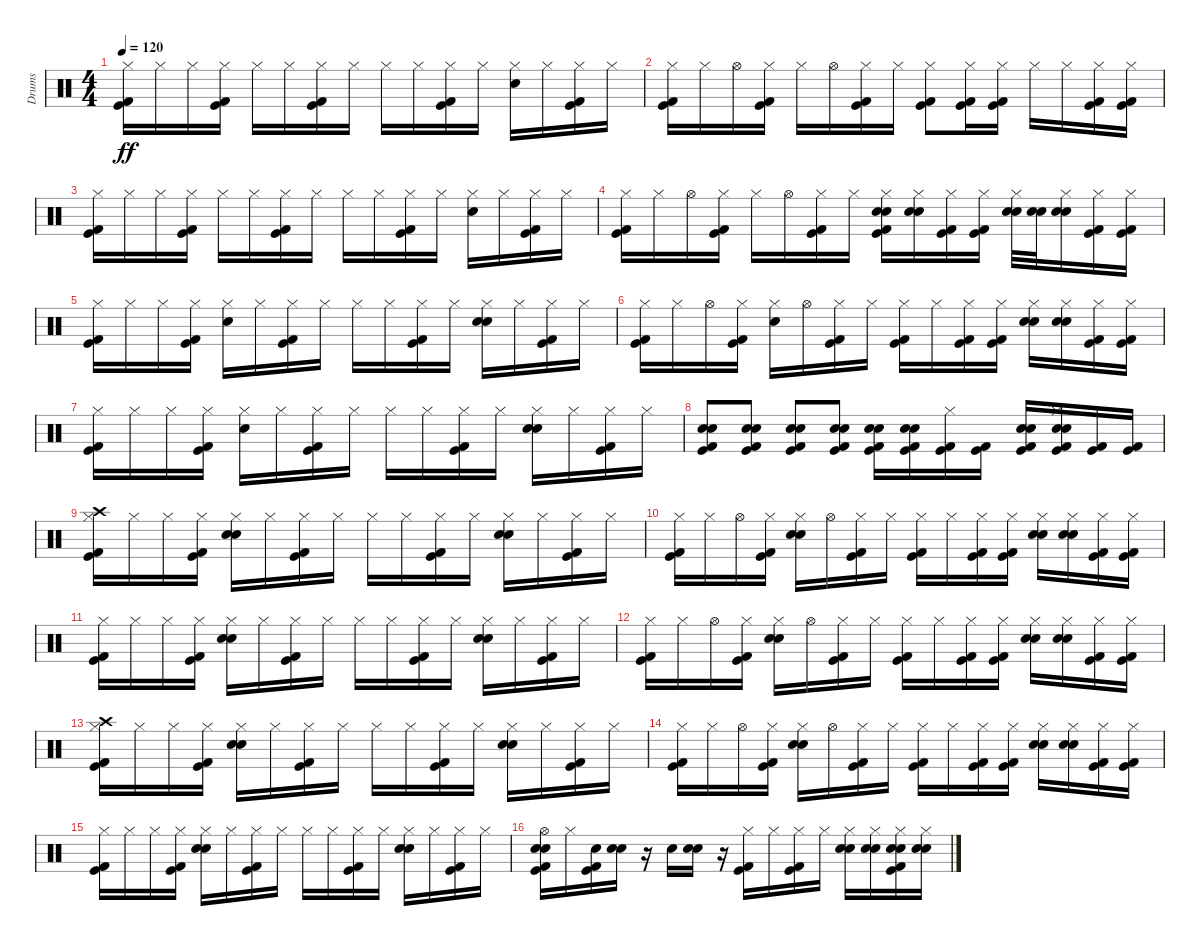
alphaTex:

\track ("Drums" "Drums") {instrument percussion}
\staff {score}
\articulation defaults
\ts (4 4)
\tempo 120
\clef neutral
\ks c
("Kick (hit)" "Kick (hit) 2" "Hi-Hat (closed)").16{dy ff} "Hi-Hat (closed)".16 "Hi-Hat (closed)".16 ("Kick (hit)" "Kick (hit) 2" "Hi-Hat (closed)").16 "Hi-Hat (closed)".16 "Hi-Hat (closed)".16 ("Kick (hit)" "Kick (hit) 2" "Hi-Hat (closed)").16 "Hi-Hat (closed)".16 "Hi-Hat (closed)".16 "Hi-Hat (closed)".16 ("Kick (hit)" "Kick (hit) 2" "Hi-Hat (closed)").16 "Hi-Hat (closed)".16 ("Hand Clap (hit)" "Hi-Hat (closed)").16 "Hi-Hat (closed)".16 ("Kick (hit)" "Kick (hit) 2" "Hi-Hat (closed)").16 "Hi-Hat (closed)".16 |
("Kick (hit)" "Kick (hit) 2" "Hi-Hat (closed)").16 "Hi-Hat (closed)".16 "Hi-Hat (open)".16 ("Kick (hit)" "Kick (hit) 2" "Hi-Hat (closed)").16 "Hi-Hat (closed)".16 "Hi-Hat (open)".16 ("Kick (hit)" "Kick (hit) 2" "Hi-Hat (closed)").16 "Hi-Hat (closed)".16 ("Kick (hit)" "Kick (hit) 2" "Hi-Hat (closed)").8 ("Kick (hit)" "Kick (hit) 2" "Hi-Hat (closed)").16 ("Kick (hit)" "Kick (hit) 2" "Hi-Hat (closed)").16 "Hi-Hat (closed)".16 "Hi-Hat (closed)".16 ("Kick (hit)" "Kick (hit) 2" "Hi-Hat (closed)").16 ("Kick (hit)" "Kick (hit) 2" "Hi-Hat (closed)").16 |
("Kick (hit)" "Kick (hit) 2" "Hi-Hat (closed)").16 "Hi-Hat (closed)".16 "Hi-Hat (closed)".16 ("Kick (hit)" "Kick (hit) 2" "Hi-Hat (closed)").16 "Hi-Hat (closed)".16 "Hi-Hat (closed)".16 ("Kick (hit)" "Kick (hit) 2" "Hi-Hat (closed)").16 "Hi-Hat (closed)".16 "Hi-Hat (closed)".16 "Hi-Hat (closed)".16 ("Kick (hit)" "Kick (hit) 2" "Hi-Hat (closed)").16 "Hi-Hat (closed)".16 ("Hand Clap (hit)" "Hi-Hat (closed)").16 "Hi-Hat (closed)".16 ("Kick (hit)" "Kick (hit) 2" "Hi-Hat (closed)").16 "Hi-Hat (closed)".16 |
("Kick (hit)" "Kick (hit) 2" "Hi-Hat (closed)").16 "Hi-Hat (closed)".16 "Hi-Hat (open)".16 ("Kick (hit)" "Kick (hit) 2" "Hi-Hat (closed)").16 "Hi-Hat (closed)".16 "Hi-Hat (open)".16 ("Kick (hit)" "Kick (hit) 2" "Hi-Hat (closed)").16 "Hi-Hat (closed)".16 ("Kick (hit)" "Kick (hit) 2" "Snare (hit) 2" "Hand Clap (hit)" "Hi-Hat (closed)").16 ("Snare (hit) 2" "Hand Clap (hit)" "Hi-Hat (closed)").16 ("Kick (hit)" "Kick (hit) 2" "Hi-Hat (closed)").16 ("Kick (hit)" "Kick (hit) 2" "Hi-Hat (closed)").16 ("Snare (hit) 2" "Hand Clap (hit)" "Hi-Hat (closed)").32 ("Snare (hit) 2" "Hand Clap (hit)").32 ("Snare (hit) 2" "Hand Clap (hit)" "Hi-Hat (closed)").16 ("Kick (hit)" "Kick (hit) 2" "Hi-Hat (closed)").16 ("Kick (hit)" "Kick (hit) 2" "Hi-Hat (closed)").16 |
("Kick (hit)" "Kick (hit) 2" "Hi-Hat (closed)").16 "Hi-Hat (closed)".16 "Hi-Hat (closed)".16 ("Kick (hit)" "Kick (hit) 2" "Hi-Hat (closed)").16 ("Hand Clap (hit)" "Hi-Hat (closed)").16 "Hi-Hat (closed)".16 ("Kick (hit)" "Kick (hit) 2" "Hi-Hat (closed)").16 "Hi-Hat (closed)".16 "Hi-Hat (closed)".16 "Hi-Hat (closed)".16 ("Kick (hit)" "Kick (hit) 2" "Hi-Hat (closed)").16 "Hi-Hat (closed)".16 ("Snare (hit) 2" "Hand Clap (hit)" "Hi-Hat (closed)").16 "Hi-Hat (closed)".16 ("Kick (hit)" "Kick (hit) 2" "Hi-Hat (closed)").16 "Hi-Hat (closed)".16 |
("Kick (hit)" "Kick (hit) 2" "Hi-Hat (closed)").16 "Hi-Hat (closed)".16 "Hi-Hat (open)".16 ("Kick (hit)" "Kick (hit) 2" "Hi-Hat (closed)").16 ("Hand Clap (hit)" "Hi-Hat (closed)").16 "Hi-Hat (open)".16 ("Kick (hit)" "Kick (hit) 2" "Hi-Hat (closed)").16 "Hi-Hat (closed)".16 ("Kick (hit)" "Kick (hit) 2" "Hi-Hat (closed)").16 "Hi-Hat (closed)".16 ("Kick (hit)" "Kick (hit) 2" "Hi-Hat (closed)").16 ("Kick (hit)" "Kick (hit) 2" "Hi-Hat (closed)").16 ("Snare (hit) 2" "Hand Clap (hit)" "Hi-Hat (closed)").16 ("Snare (hit) 2" "Hand Clap (hit)" "Hi-Hat (closed)").16 ("Kick (hit)" "Kick (hit) 2" "Hi-Hat (closed)").16 ("Kick (hit)" "Kick (hit) 2" "Hi-Hat (closed)").16 |
("Kick (hit)" "Kick (hit) 2" "Hi-Hat (closed)").16 "Hi-Hat (closed)".16 "Hi-Hat (closed)".16 ("Kick (hit)" "Kick (hit) 2" "Hi-Hat (closed)").16 ("Hand Clap (hit)" "Hi-Hat (closed)").16 "Hi-Hat (closed)".16 ("Kick (hit)" "Kick (hit) 2" "Hi-Hat (closed)").16 "Hi-Hat (closed)".16 "Hi-Hat (closed)".16 "Hi-Hat (closed)".16 ("Kick (hit)" "Kick (hit) 2" "Hi-Hat (closed)").16 "Hi-Hat (closed)".16 ("Snare (hit) 2" "Hand Clap (hit)" "Hi-Hat (closed)").16 "Hi-Hat (closed)".16 ("Kick (hit)" "Kick (hit) 2" "Hi-Hat (closed)").16 "Hi-Hat (closed)".16 |
("Kick (hit)" "Kick (hit) 2" "Snare (hit) 2" "Hand Clap (hit)").8 ("Kick (hit)" "Kick (hit) 2" "Snare (hit) 2" "Hand Clap (hit)").8 ("Kick (hit)" "Kick (hit) 2" "Snare (hit) 2" "Hand Clap (hit)").8 ("Kick (hit)" "Kick (hit) 2" "Snare (hit) 2" "Hand Clap (hit)").8 ("Kick (hit)" "Kick (hit) 2" "Snare (hit) 2" "Hand Clap (hit)").16 ("Kick (hit)" "Kick (hit) 2" "Snare (hit) 2" "Hand Clap (hit)").16 ("Kick (hit)" "Kick (hit) 2" "Hi-Hat (closed)").16 ("Kick (hit)" "Kick (hit) 2").16 ("Kick (hit)" "Kick (hit) 2" "Snare (hit) 2" "Hand Clap (hit)").16 ("Kick (hit)" "Kick (hit) 2" "Snare (hit) 2" "Hand Clap (hit)" "Hi-Hat (closed)").16 ("Kick (hit)" "Kick (hit) 2").16 ("Kick (hit)" "Kick (hit) 2").16 |
("Kick (hit)" "Kick (hit) 2" "Hi-Hat (closed)" "Crash high (hit)").16 "Hi-Hat (closed)".16 "Hi-Hat (closed)".16 ("Kick (hit)" "Kick (hit) 2" "Hi-Hat (closed)").16 ("Snare (hit) 2" "Hand Clap (hit)" "Hi-Hat (closed)").16 "Hi-Hat (closed)".16 ("Kick (hit)" "Kick (hit) 2" "Hi-Hat (closed)").16 "Hi-Hat (closed)".16 "Hi-Hat (closed)".16 "Hi-Hat (closed)".16 ("Kick (hit)" "Kick (hit) 2" "Hi-Hat (closed)").16 "Hi-Hat (closed)".16 ("Snare (hit) 2" "Hand Clap (hit)" "Hi-Hat (closed)").16 "Hi-Hat (closed)".16 ("Kick (hit)" "Kick (hit) 2" "Hi-Hat (closed)").16 "Hi-Hat (closed)".16 |
("Kick (hit)" "Kick (hit) 2" "Hi-Hat (closed)").16 "Hi-Hat (closed)".16 "Hi-Hat (open)".16 ("Kick (hit)" "Kick (hit) 2" "Hi-Hat (closed)").16 ("Snare (hit) 2" "Hand Clap (hit)" "Hi-Hat (closed)").16 "Hi-Hat (open)".16 ("Kick (hit)" "Kick (hit) 2" "Hi-Hat (closed)").16 "Hi-Hat (closed)".16 ("Kick (hit)" "Kick (hit) 2" "Hi-Hat (closed)").16 "Hi-Hat (closed)".16 ("Kick (hit)" "Kick (hit) 2" "Hi-Hat (closed)").16 ("Kick (hit)" "Kick (hit) 2" "Hi-Hat (closed)").16 ("Snare (hit) 2" "Hand Clap (hit)" "Hi-Hat (closed)").16 ("Snare (hit) 2" "Hand Clap (hit)" "Hi-Hat (closed)").16 ("Kick (hit)" "Kick (hit) 2" "Hi-Hat (closed)").16 ("Kick (hit)" "Kick (hit) 2" "Hi-Hat (closed)").16 |
("Kick (hit)" "Kick (hit) 2" "Hi-Hat (closed)").16 "Hi-Hat (closed)".16 "Hi-Hat (closed)".16 ("Kick (hit)" "Kick (hit) 2" "Hi-Hat (closed)").16 ("Snare (hit) 2" "Hand Clap (hit)" "Hi-Hat (closed)").16 "Hi-Hat (closed)".16 ("Kick (hit)" "Kick (hit) 2" "Hi-Hat (closed)").16 "Hi-Hat (closed)".16 "Hi-Hat (closed)".16 "Hi-Hat (closed)".16 ("Kick (hit)" "Kick (hit) 2" "Hi-Hat (closed)").16 "Hi-Hat (closed)".16 ("Snare (hit) 2" "Hand Clap (hit)" "Hi-Hat (closed)").16 "Hi-Hat (closed)".16 ("Kick (hit)" "Kick (hit) 2" "Hi-Hat (closed)").16 "Hi-Hat (closed)".16 |
("Kick (hit)" "Kick (hit) 2" "Hi-Hat (closed)").16 "Hi-Hat (closed)".16 "Hi-Hat (open)".16 ("Kick (hit)" "Kick (hit) 2" "Hi-Hat (closed)").16 ("Snare (hit) 2" "Hand Clap (hit)" "Hi-Hat (closed)").16 "Hi-Hat (open)".16 ("Kick (hit)" "Kick (hit) 2" "Hi-Hat (closed)").16 "Hi-Hat (closed)".16 ("Kick (hit)" "Kick (hit) 2" "Hi-Hat (closed)").16 "Hi-Hat (closed)".16 ("Kick (hit)" "Kick (hit) 2" "Hi-Hat (closed)").16 ("Kick (hit)" "Kick (hit) 2" "Hi-Hat (closed)").16 ("Snare (hit) 2" "Hand Clap (hit)" "Hi-Hat (closed)").16 ("Snare (hit) 2" "Hand Clap (hit)" "Hi-Hat (closed)").16 ("Kick (hit)" "Kick (hit) 2" "Hi-Hat (closed)").16 ("Kick (hit)" "Kick (hit) 2" "Hi-Hat (closed)").16 |
("Kick (hit)" "Kick (hit) 2" "Hi-Hat (closed)" "Crash high (hit)").16 "Hi-Hat (closed)".16 "Hi-Hat (closed)".16 ("Kick (hit)" "Kick (hit) 2" "Hi-Hat (closed)").16 ("Snare (hit) 2" "Hand Clap (hit)" "Hi-Hat (closed)").16 "Hi-Hat (closed)".16 ("Kick (hit)" "Kick (hit) 2" "Hi-Hat (closed)").16 "Hi-Hat (closed)".16 "Hi-Hat (closed)".16 "Hi-Hat (closed)".16 ("Kick (hit)" "Kick (hit) 2" "Hi-Hat (closed)").16 "Hi-Hat (closed)".16 ("Snare (hit) 2" "Hand Clap (hit)" "Hi-Hat (closed)").16 "Hi-Hat (closed)".16 ("Kick (hit)" "Kick (hit) 2" "Hi-Hat (closed)").16 "Hi-Hat (closed)".16 |
("Kick (hit)" "Kick (hit) 2" "Hi-Hat (closed)").16 "Hi-Hat (closed)".16 "Hi-Hat (open)".16 ("Kick (hit)" "Kick (hit) 2" "Hi-Hat (closed)").16 ("Snare (hit) 2" "Hand Clap (hit)" "Hi-Hat (closed)").16 "Hi-Hat (open)".16 ("Kick (hit)" "Kick (hit) 2" "Hi-Hat (closed)").16 "Hi-Hat (closed)".16 ("Kick (hit)" "Kick (hit) 2" "Hi-Hat (closed)").16 "Hi-Hat (closed)".16 ("Kick (hit)" "Kick (hit) 2" "Hi-Hat (closed)").16 ("Kick (hit)" "Kick (hit) 2" "Hi-Hat (closed)").16 ("Snare (hit) 2" "Hand Clap (hit)" "Hi-Hat (closed)").16 ("Snare (hit) 2" "Hand Clap (hit)" "Hi-Hat (closed)").16 ("Kick (hit)" "Kick (hit) 2" "Hi-Hat (closed)").16 ("Kick (hit)" "Kick (hit) 2" "Hi-Hat (closed)").16 |
("Kick (hit)" "Kick (hit) 2" "Hi-Hat (closed)").16 "Hi-Hat (closed)".16 "Hi-Hat (closed)".16 ("Kick (hit)" "Kick (hit) 2" "Hi-Hat (closed)").16 ("Snare (hit) 2" "Hand Clap (hit)" "Hi-Hat (closed)").16 "Hi-Hat (closed)".16 ("Kick (hit)" "Kick (hit) 2" "Hi-Hat (closed)").16 "Hi-Hat (closed)".16 "Hi-Hat (closed)".16 "Hi-Hat (closed)".16 ("Kick (hit)" "Kick (hit) 2" "Hi-Hat (closed)").16 "Hi-Hat (closed)".16 ("Snare (hit) 2" "Hand Clap (hit)" "Hi-Hat (closed)").16 "Hi-Hat (closed)".16 ("Kick (hit)" "Kick (hit) 2" "Hi-Hat (closed)").16 "Hi-Hat (closed)".16 |
("Kick (hit)" "Kick (hit) 2" "Snare (hit) 2" "Hand Clap (hit)" "Hi-Hat (open)").16 "Hi-Hat (closed)".16 ("Kick (hit)" "Kick (hit) 2" "Hand Clap (hit)").16 ("Snare (hit) 2" "Hand Clap (hit)").16 r.16 "Hand Clap (hit)".16 ("Snare (hit) 2" "Hand Clap (hit)").16 r.16 ("Kick (hit)" "Kick (hit) 2" "Hi-Hat (closed)").16 "Hi-Hat (closed)".16 ("Kick (hit)" "Kick (hit) 2" "Hi-Hat (closed)").16 "Hi-Hat (closed)".16 ("Snare (hit) 2" "Hand Clap (hit)" "Hi-Hat (closed)").16 ("Snare (hit) 2" "Hand Clap (hit)" "Hi-Hat (closed)").16 ("Kick (hit)" "Kick (hit) 2" "Snare (hit) 2" "Hand Clap (hit)" "Hi-Hat (closed)").16 ("Snare (hit) 2" "Hand Clap (hit)" "Hi-Hat (closed)").16
